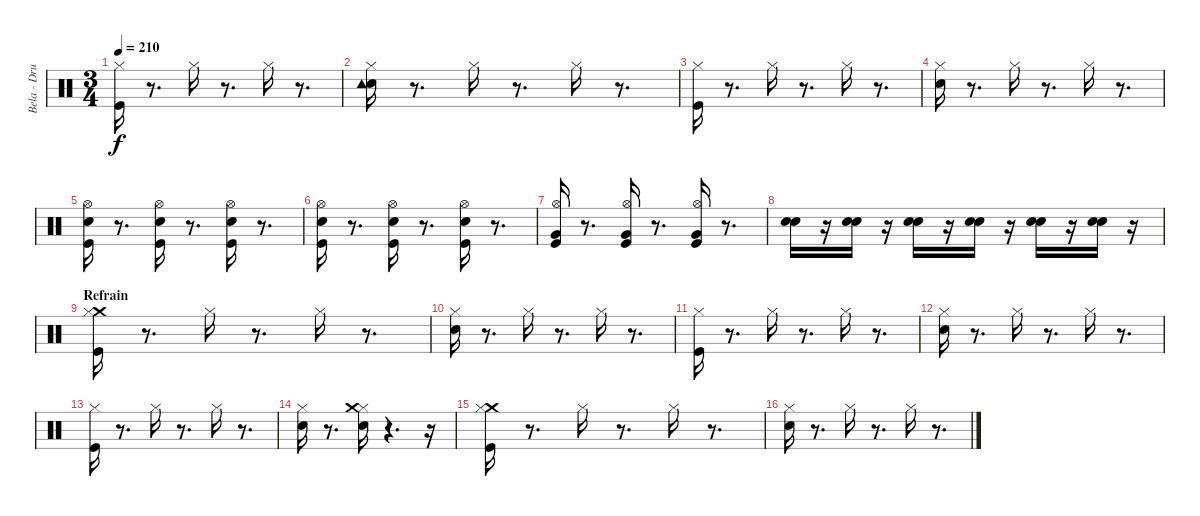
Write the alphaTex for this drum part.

\track ("Bela - Drums" "Bela - Dru") {instrument percussion}
\staff {score}
\articulation defaults
\ts (3 4)
\tempo 210
\clef neutral
\ks c
("Kick (hit)" "Hi-Hat (closed)").16{dy f} r.8{d} "Hi-Hat (closed)".16 r.8{d} "Hi-Hat (closed)".16 r.8{d} |
("Hi-Hat (closed)" "Electric Snare (hit)" "Tambourine (hit)").16 r.8{d} "Hi-Hat (closed)".16 r.8{d} "Hi-Hat (closed)".16 r.8{d} |
("Kick (hit)" "Hi-Hat (closed)").16 r.8{d} "Hi-Hat (closed)".16 r.8{d} "Hi-Hat (closed)".16 r.8{d} |
("Hi-Hat (closed)" "Electric Snare (hit)").16 r.8{d} "Hi-Hat (closed)".16 r.8{d} "Hi-Hat (closed)".16 r.8{d} |
("Electric Snare (hit)" "Kick (hit)" "Hi-Hat (open)").16 r.8{d} ("Electric Snare (hit)" "Kick (hit)" "Hi-Hat (open)").16 r.8{d} ("Electric Snare (hit)" "Kick (hit)" "Hi-Hat (open)").16 r.8{d} |
("Electric Snare (hit)" "Kick (hit)" "Hi-Hat (open)").16 r.8{d} ("Electric Snare (hit)" "Kick (hit)" "Hi-Hat (open)").16 r.8{d} ("Electric Snare (hit)" "Kick (hit)" "Hi-Hat (open)").16 r.8{d} |
("Kick (hit)" "Hi-Hat (open)" "Very Low Tom (hit)").16 r.8{d} ("Kick (hit)" "Hi-Hat (open)" "Very Low Tom (hit)").16 r.8{d} ("Kick (hit)" "Hi-Hat (open)" "Very Low Tom (hit)").16 r.8{d} |
("Snare (hit) 2" "Electric Snare (hit)").16 r.16 ("Snare (hit) 2" "Electric Snare (hit)").16 r.16 ("Snare (hit) 2" "Electric Snare (hit)").16 r.16 ("Snare (hit) 2" "Electric Snare (hit)").16 r.16 ("Snare (hit) 2" "Electric Snare (hit)").16 r.16 ("Snare (hit) 2" "Electric Snare (hit)").16 r.16 |
\section ("" "Refrain")
("Kick (hit)" "Crash medium (hit)" "Hi-Hat (closed)").16 r.8{d} "Hi-Hat (closed)".16 r.8{d} "Hi-Hat (closed)".16 r.8{d} |
("Hi-Hat (closed)" "Electric Snare (hit)").16 r.8{d} "Hi-Hat (closed)".16 r.8{d} "Hi-Hat (closed)".16 r.8{d} |
("Kick (hit)" "Hi-Hat (closed)").16 r.8{d} "Hi-Hat (closed)".16 r.8{d} "Hi-Hat (closed)".16 r.8{d} |
("Hi-Hat (closed)" "Electric Snare (hit)").16 r.8{d} "Hi-Hat (closed)".16 r.8{d} "Hi-Hat (closed)".16 r.8{d} |
("Kick (hit)" "Hi-Hat (closed)").16 r.8{d} "Hi-Hat (closed)".16 r.8{d} "Hi-Hat (closed)".16 r.8{d} |
("Hi-Hat (closed)" "Electric Snare (hit)").16 r.8{d} ("Hi-Hat (closed)" "Electric Snare (hit)" "Crash medium (hit)").16 r.4{d} r.16 |
("Kick (hit)" "Crash medium (hit)" "Hi-Hat (closed)").16 r.8{d} "Hi-Hat (closed)".16 r.8{d} "Hi-Hat (closed)".16 r.8{d} |
("Hi-Hat (closed)" "Electric Snare (hit)").16 r.8{d} "Hi-Hat (closed)".16 r.8{d} "Hi-Hat (closed)".16 r.8{d}
